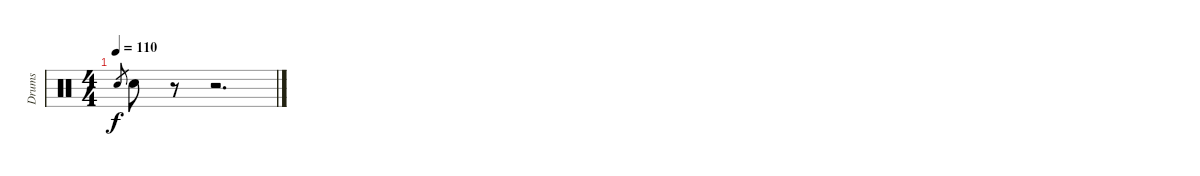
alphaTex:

\track ("Drums" "Drums") {instrument percussion}
\staff {score}
\articulation defaults
\ts (4 4)
\tempo 110
\clef neutral
\ks c "Electric Snare (hit)".8{gr dy f} "Electric Snare (hit)".8
r.8 r.2{d}
